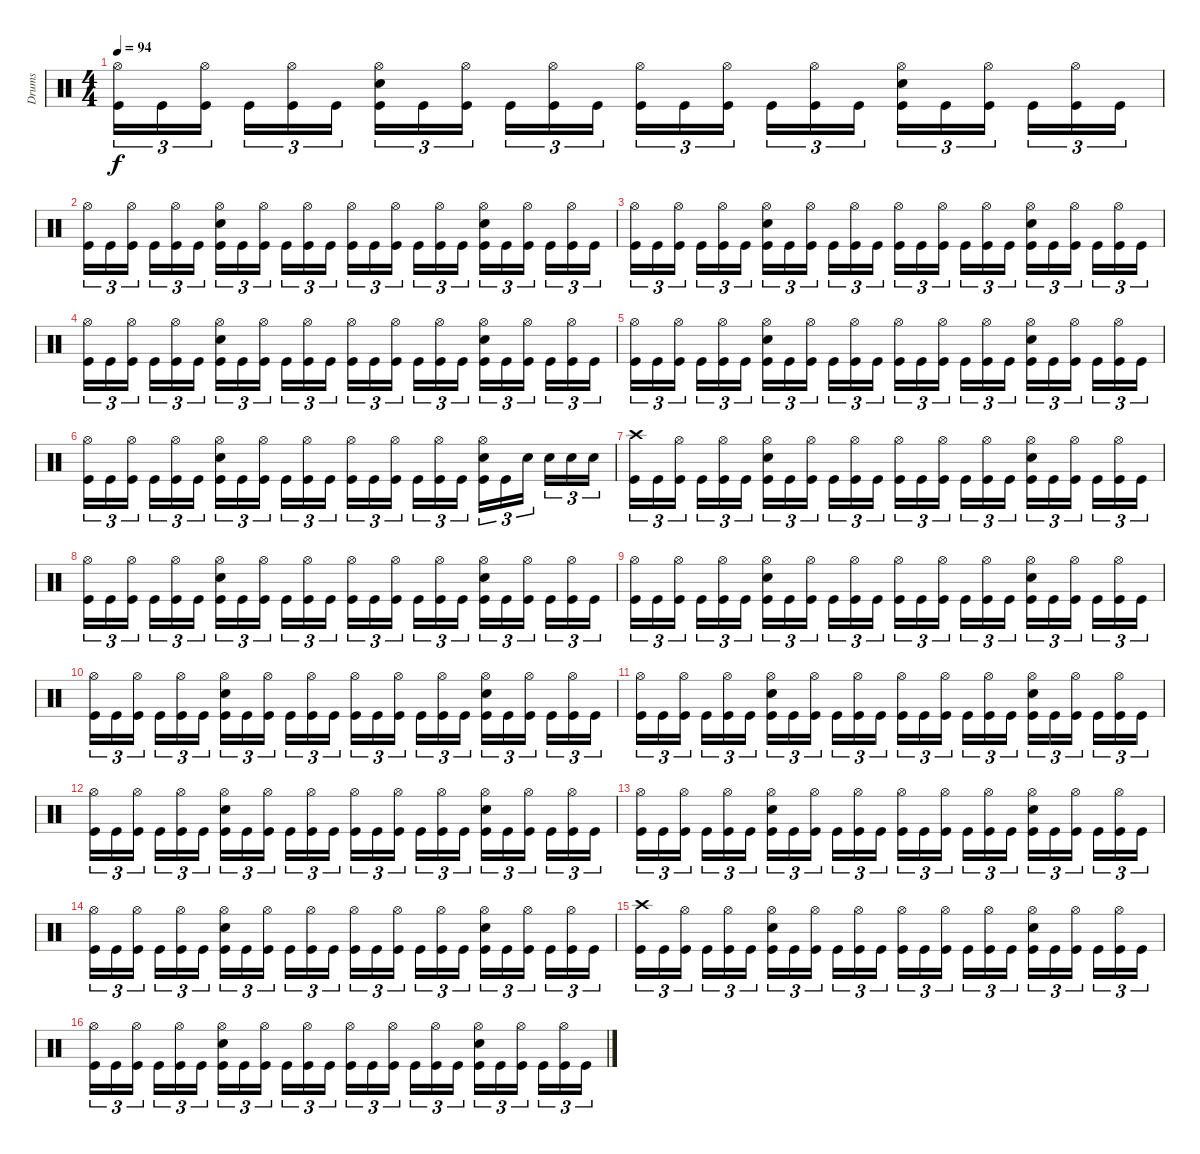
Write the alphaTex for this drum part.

\track ("Drums" "Drums") {instrument percussion}
\staff {score}
\articulation defaults
\ts (4 4)
\tempo 94
\clef neutral
\ks c
("Hi-Hat (open)" "Kick (hit)").16{tu (3 2) dy f} "Kick (hit)".16{tu (3 2)} ("Hi-Hat (open)" "Kick (hit)").16{tu (3 2)} "Kick (hit)".16{tu (3 2)} ("Hi-Hat (open)" "Kick (hit)").16{tu (3 2)} "Kick (hit)".16{tu (3 2)} ("Hi-Hat (open)" "Snare (hit) 2" "Kick (hit)").16{tu (3 2)} "Kick (hit)".16{tu (3 2)} ("Hi-Hat (open)" "Kick (hit)").16{tu (3 2)} "Kick (hit)".16{tu (3 2)} ("Hi-Hat (open)" "Kick (hit)").16{tu (3 2)} "Kick (hit)".16{tu (3 2)} ("Hi-Hat (open)" "Kick (hit)").16{tu (3 2)} "Kick (hit)".16{tu (3 2)} ("Hi-Hat (open)" "Kick (hit)").16{tu (3 2)} "Kick (hit)".16{tu (3 2)} ("Hi-Hat (open)" "Kick (hit)").16{tu (3 2)} "Kick (hit)".16{tu (3 2)} ("Hi-Hat (open)" "Snare (hit) 2" "Kick (hit)").16{tu (3 2)} "Kick (hit)".16{tu (3 2)} ("Hi-Hat (open)" "Kick (hit)").16{tu (3 2)} "Kick (hit)".16{tu (3 2)} ("Hi-Hat (open)" "Kick (hit)").16{tu (3 2)} "Kick (hit)".16{tu (3 2)} |
("Hi-Hat (open)" "Kick (hit)").16{tu (3 2)} "Kick (hit)".16{tu (3 2)} ("Hi-Hat (open)" "Kick (hit)").16{tu (3 2)} "Kick (hit)".16{tu (3 2)} ("Hi-Hat (open)" "Kick (hit)").16{tu (3 2)} "Kick (hit)".16{tu (3 2)} ("Hi-Hat (open)" "Snare (hit) 2" "Kick (hit)").16{tu (3 2)} "Kick (hit)".16{tu (3 2)} ("Hi-Hat (open)" "Kick (hit)").16{tu (3 2)} "Kick (hit)".16{tu (3 2)} ("Hi-Hat (open)" "Kick (hit)").16{tu (3 2)} "Kick (hit)".16{tu (3 2)} ("Hi-Hat (open)" "Kick (hit)").16{tu (3 2)} "Kick (hit)".16{tu (3 2)} ("Hi-Hat (open)" "Kick (hit)").16{tu (3 2)} "Kick (hit)".16{tu (3 2)} ("Hi-Hat (open)" "Kick (hit)").16{tu (3 2)} "Kick (hit)".16{tu (3 2)} ("Hi-Hat (open)" "Snare (hit) 2" "Kick (hit)").16{tu (3 2)} "Kick (hit)".16{tu (3 2)} ("Hi-Hat (open)" "Kick (hit)").16{tu (3 2)} "Kick (hit)".16{tu (3 2)} ("Hi-Hat (open)" "Kick (hit)").16{tu (3 2)} "Kick (hit)".16{tu (3 2)} |
("Hi-Hat (open)" "Kick (hit)").16{tu (3 2)} "Kick (hit)".16{tu (3 2)} ("Hi-Hat (open)" "Kick (hit)").16{tu (3 2)} "Kick (hit)".16{tu (3 2)} ("Hi-Hat (open)" "Kick (hit)").16{tu (3 2)} "Kick (hit)".16{tu (3 2)} ("Hi-Hat (open)" "Snare (hit) 2" "Kick (hit)").16{tu (3 2)} "Kick (hit)".16{tu (3 2)} ("Hi-Hat (open)" "Kick (hit)").16{tu (3 2)} "Kick (hit)".16{tu (3 2)} ("Hi-Hat (open)" "Kick (hit)").16{tu (3 2)} "Kick (hit)".16{tu (3 2)} ("Hi-Hat (open)" "Kick (hit)").16{tu (3 2)} "Kick (hit)".16{tu (3 2)} ("Hi-Hat (open)" "Kick (hit)").16{tu (3 2)} "Kick (hit)".16{tu (3 2)} ("Hi-Hat (open)" "Kick (hit)").16{tu (3 2)} "Kick (hit)".16{tu (3 2)} ("Hi-Hat (open)" "Snare (hit) 2" "Kick (hit)").16{tu (3 2)} "Kick (hit)".16{tu (3 2)} ("Hi-Hat (open)" "Kick (hit)").16{tu (3 2)} "Kick (hit)".16{tu (3 2)} ("Hi-Hat (open)" "Kick (hit)").16{tu (3 2)} "Kick (hit)".16{tu (3 2)} |
("Hi-Hat (open)" "Kick (hit)").16{tu (3 2)} "Kick (hit)".16{tu (3 2)} ("Hi-Hat (open)" "Kick (hit)").16{tu (3 2)} "Kick (hit)".16{tu (3 2)} ("Hi-Hat (open)" "Kick (hit)").16{tu (3 2)} "Kick (hit)".16{tu (3 2)} ("Hi-Hat (open)" "Snare (hit) 2" "Kick (hit)").16{tu (3 2)} "Kick (hit)".16{tu (3 2)} ("Hi-Hat (open)" "Kick (hit)").16{tu (3 2)} "Kick (hit)".16{tu (3 2)} ("Hi-Hat (open)" "Kick (hit)").16{tu (3 2)} "Kick (hit)".16{tu (3 2)} ("Hi-Hat (open)" "Kick (hit)").16{tu (3 2)} "Kick (hit)".16{tu (3 2)} ("Hi-Hat (open)" "Kick (hit)").16{tu (3 2)} "Kick (hit)".16{tu (3 2)} ("Hi-Hat (open)" "Kick (hit)").16{tu (3 2)} "Kick (hit)".16{tu (3 2)} ("Hi-Hat (open)" "Snare (hit) 2" "Kick (hit)").16{tu (3 2)} "Kick (hit)".16{tu (3 2)} ("Hi-Hat (open)" "Kick (hit)").16{tu (3 2)} "Kick (hit)".16{tu (3 2)} ("Hi-Hat (open)" "Kick (hit)").16{tu (3 2)} "Kick (hit)".16{tu (3 2)} |
("Hi-Hat (open)" "Kick (hit)").16{tu (3 2)} "Kick (hit)".16{tu (3 2)} ("Hi-Hat (open)" "Kick (hit)").16{tu (3 2)} "Kick (hit)".16{tu (3 2)} ("Hi-Hat (open)" "Kick (hit)").16{tu (3 2)} "Kick (hit)".16{tu (3 2)} ("Hi-Hat (open)" "Snare (hit) 2" "Kick (hit)").16{tu (3 2)} "Kick (hit)".16{tu (3 2)} ("Hi-Hat (open)" "Kick (hit)").16{tu (3 2)} "Kick (hit)".16{tu (3 2)} ("Hi-Hat (open)" "Kick (hit)").16{tu (3 2)} "Kick (hit)".16{tu (3 2)} ("Hi-Hat (open)" "Kick (hit)").16{tu (3 2)} "Kick (hit)".16{tu (3 2)} ("Hi-Hat (open)" "Kick (hit)").16{tu (3 2)} "Kick (hit)".16{tu (3 2)} ("Hi-Hat (open)" "Kick (hit)").16{tu (3 2)} "Kick (hit)".16{tu (3 2)} ("Hi-Hat (open)" "Snare (hit) 2" "Kick (hit)").16{tu (3 2)} "Kick (hit)".16{tu (3 2)} ("Hi-Hat (open)" "Kick (hit)").16{tu (3 2)} "Kick (hit)".16{tu (3 2)} ("Hi-Hat (open)" "Kick (hit)").16{tu (3 2)} "Kick (hit)".16{tu (3 2)} |
("Hi-Hat (open)" "Kick (hit)").16{tu (3 2)} "Kick (hit)".16{tu (3 2)} ("Hi-Hat (open)" "Kick (hit)").16{tu (3 2)} "Kick (hit)".16{tu (3 2)} ("Hi-Hat (open)" "Kick (hit)").16{tu (3 2)} "Kick (hit)".16{tu (3 2)} ("Hi-Hat (open)" "Snare (hit) 2" "Kick (hit)").16{tu (3 2)} "Kick (hit)".16{tu (3 2)} ("Hi-Hat (open)" "Kick (hit)").16{tu (3 2)} "Kick (hit)".16{tu (3 2)} ("Hi-Hat (open)" "Kick (hit)").16{tu (3 2)} "Kick (hit)".16{tu (3 2)} ("Hi-Hat (open)" "Kick (hit)").16{tu (3 2)} "Kick (hit)".16{tu (3 2)} ("Hi-Hat (open)" "Kick (hit)").16{tu (3 2)} "Kick (hit)".16{tu (3 2)} ("Hi-Hat (open)" "Kick (hit)").16{tu (3 2)} "Kick (hit)".16{tu (3 2)} ("Hi-Hat (open)" "Snare (hit) 2" "Kick (hit)").16{tu (3 2)} "Kick (hit)".16{tu (3 2)} "Snare (hit) 2".16{tu (3 2)} "Snare (hit) 2".16{tu (3 2)} "Snare (hit) 2".16{tu (3 2)} "Snare (hit) 2".16{tu (3 2)} |
("Crash high (hit)" "Kick (hit)").16{tu (3 2)} "Kick (hit)".16{tu (3 2)} ("Hi-Hat (open)" "Kick (hit)").16{tu (3 2)} "Kick (hit)".16{tu (3 2)} ("Hi-Hat (open)" "Kick (hit)").16{tu (3 2)} "Kick (hit)".16{tu (3 2)} ("Hi-Hat (open)" "Snare (hit) 2" "Kick (hit)").16{tu (3 2)} "Kick (hit)".16{tu (3 2)} ("Hi-Hat (open)" "Kick (hit)").16{tu (3 2)} "Kick (hit)".16{tu (3 2)} ("Hi-Hat (open)" "Kick (hit)").16{tu (3 2)} "Kick (hit)".16{tu (3 2)} ("Hi-Hat (open)" "Kick (hit)").16{tu (3 2)} "Kick (hit)".16{tu (3 2)} ("Hi-Hat (open)" "Kick (hit)").16{tu (3 2)} "Kick (hit)".16{tu (3 2)} ("Hi-Hat (open)" "Kick (hit)").16{tu (3 2)} "Kick (hit)".16{tu (3 2)} ("Hi-Hat (open)" "Snare (hit) 2" "Kick (hit)").16{tu (3 2)} "Kick (hit)".16{tu (3 2)} ("Hi-Hat (open)" "Kick (hit)").16{tu (3 2)} "Kick (hit)".16{tu (3 2)} ("Hi-Hat (open)" "Kick (hit)").16{tu (3 2)} "Kick (hit)".16{tu (3 2)} |
("Hi-Hat (open)" "Kick (hit)").16{tu (3 2)} "Kick (hit)".16{tu (3 2)} ("Hi-Hat (open)" "Kick (hit)").16{tu (3 2)} "Kick (hit)".16{tu (3 2)} ("Hi-Hat (open)" "Kick (hit)").16{tu (3 2)} "Kick (hit)".16{tu (3 2)} ("Hi-Hat (open)" "Snare (hit) 2" "Kick (hit)").16{tu (3 2)} "Kick (hit)".16{tu (3 2)} ("Hi-Hat (open)" "Kick (hit)").16{tu (3 2)} "Kick (hit)".16{tu (3 2)} ("Hi-Hat (open)" "Kick (hit)").16{tu (3 2)} "Kick (hit)".16{tu (3 2)} ("Hi-Hat (open)" "Kick (hit)").16{tu (3 2)} "Kick (hit)".16{tu (3 2)} ("Hi-Hat (open)" "Kick (hit)").16{tu (3 2)} "Kick (hit)".16{tu (3 2)} ("Hi-Hat (open)" "Kick (hit)").16{tu (3 2)} "Kick (hit)".16{tu (3 2)} ("Hi-Hat (open)" "Snare (hit) 2" "Kick (hit)").16{tu (3 2)} "Kick (hit)".16{tu (3 2)} ("Hi-Hat (open)" "Kick (hit)").16{tu (3 2)} "Kick (hit)".16{tu (3 2)} ("Hi-Hat (open)" "Kick (hit)").16{tu (3 2)} "Kick (hit)".16{tu (3 2)} |
("Hi-Hat (open)" "Kick (hit)").16{tu (3 2)} "Kick (hit)".16{tu (3 2)} ("Hi-Hat (open)" "Kick (hit)").16{tu (3 2)} "Kick (hit)".16{tu (3 2)} ("Hi-Hat (open)" "Kick (hit)").16{tu (3 2)} "Kick (hit)".16{tu (3 2)} ("Hi-Hat (open)" "Snare (hit) 2" "Kick (hit)").16{tu (3 2)} "Kick (hit)".16{tu (3 2)} ("Hi-Hat (open)" "Kick (hit)").16{tu (3 2)} "Kick (hit)".16{tu (3 2)} ("Hi-Hat (open)" "Kick (hit)").16{tu (3 2)} "Kick (hit)".16{tu (3 2)} ("Hi-Hat (open)" "Kick (hit)").16{tu (3 2)} "Kick (hit)".16{tu (3 2)} ("Hi-Hat (open)" "Kick (hit)").16{tu (3 2)} "Kick (hit)".16{tu (3 2)} ("Hi-Hat (open)" "Kick (hit)").16{tu (3 2)} "Kick (hit)".16{tu (3 2)} ("Hi-Hat (open)" "Snare (hit) 2" "Kick (hit)").16{tu (3 2)} "Kick (hit)".16{tu (3 2)} ("Hi-Hat (open)" "Kick (hit)").16{tu (3 2)} "Kick (hit)".16{tu (3 2)} ("Hi-Hat (open)" "Kick (hit)").16{tu (3 2)} "Kick (hit)".16{tu (3 2)} |
("Hi-Hat (open)" "Kick (hit)").16{tu (3 2)} "Kick (hit)".16{tu (3 2)} ("Hi-Hat (open)" "Kick (hit)").16{tu (3 2)} "Kick (hit)".16{tu (3 2)} ("Hi-Hat (open)" "Kick (hit)").16{tu (3 2)} "Kick (hit)".16{tu (3 2)} ("Hi-Hat (open)" "Snare (hit) 2" "Kick (hit)").16{tu (3 2)} "Kick (hit)".16{tu (3 2)} ("Hi-Hat (open)" "Kick (hit)").16{tu (3 2)} "Kick (hit)".16{tu (3 2)} ("Hi-Hat (open)" "Kick (hit)").16{tu (3 2)} "Kick (hit)".16{tu (3 2)} ("Hi-Hat (open)" "Kick (hit)").16{tu (3 2)} "Kick (hit)".16{tu (3 2)} ("Hi-Hat (open)" "Kick (hit)").16{tu (3 2)} "Kick (hit)".16{tu (3 2)} ("Hi-Hat (open)" "Kick (hit)").16{tu (3 2)} "Kick (hit)".16{tu (3 2)} ("Hi-Hat (open)" "Snare (hit) 2" "Kick (hit)").16{tu (3 2)} "Kick (hit)".16{tu (3 2)} ("Hi-Hat (open)" "Kick (hit)").16{tu (3 2)} "Kick (hit)".16{tu (3 2)} ("Hi-Hat (open)" "Kick (hit)").16{tu (3 2)} "Kick (hit)".16{tu (3 2)} |
("Hi-Hat (open)" "Kick (hit)").16{tu (3 2)} "Kick (hit)".16{tu (3 2)} ("Hi-Hat (open)" "Kick (hit)").16{tu (3 2)} "Kick (hit)".16{tu (3 2)} ("Hi-Hat (open)" "Kick (hit)").16{tu (3 2)} "Kick (hit)".16{tu (3 2)} ("Hi-Hat (open)" "Snare (hit) 2" "Kick (hit)").16{tu (3 2)} "Kick (hit)".16{tu (3 2)} ("Hi-Hat (open)" "Kick (hit)").16{tu (3 2)} "Kick (hit)".16{tu (3 2)} ("Hi-Hat (open)" "Kick (hit)").16{tu (3 2)} "Kick (hit)".16{tu (3 2)} ("Hi-Hat (open)" "Kick (hit)").16{tu (3 2)} "Kick (hit)".16{tu (3 2)} ("Hi-Hat (open)" "Kick (hit)").16{tu (3 2)} "Kick (hit)".16{tu (3 2)} ("Hi-Hat (open)" "Kick (hit)").16{tu (3 2)} "Kick (hit)".16{tu (3 2)} ("Hi-Hat (open)" "Snare (hit) 2" "Kick (hit)").16{tu (3 2)} "Kick (hit)".16{tu (3 2)} ("Hi-Hat (open)" "Kick (hit)").16{tu (3 2)} "Kick (hit)".16{tu (3 2)} ("Hi-Hat (open)" "Kick (hit)").16{tu (3 2)} "Kick (hit)".16{tu (3 2)} |
("Hi-Hat (open)" "Kick (hit)").16{tu (3 2)} "Kick (hit)".16{tu (3 2)} ("Hi-Hat (open)" "Kick (hit)").16{tu (3 2)} "Kick (hit)".16{tu (3 2)} ("Hi-Hat (open)" "Kick (hit)").16{tu (3 2)} "Kick (hit)".16{tu (3 2)} ("Hi-Hat (open)" "Snare (hit) 2" "Kick (hit)").16{tu (3 2)} "Kick (hit)".16{tu (3 2)} ("Hi-Hat (open)" "Kick (hit)").16{tu (3 2)} "Kick (hit)".16{tu (3 2)} ("Hi-Hat (open)" "Kick (hit)").16{tu (3 2)} "Kick (hit)".16{tu (3 2)} ("Hi-Hat (open)" "Kick (hit)").16{tu (3 2)} "Kick (hit)".16{tu (3 2)} ("Hi-Hat (open)" "Kick (hit)").16{tu (3 2)} "Kick (hit)".16{tu (3 2)} ("Hi-Hat (open)" "Kick (hit)").16{tu (3 2)} "Kick (hit)".16{tu (3 2)} ("Hi-Hat (open)" "Snare (hit) 2" "Kick (hit)").16{tu (3 2)} "Kick (hit)".16{tu (3 2)} ("Hi-Hat (open)" "Kick (hit)").16{tu (3 2)} "Kick (hit)".16{tu (3 2)} ("Hi-Hat (open)" "Kick (hit)").16{tu (3 2)} "Kick (hit)".16{tu (3 2)} |
("Hi-Hat (open)" "Kick (hit)").16{tu (3 2)} "Kick (hit)".16{tu (3 2)} ("Hi-Hat (open)" "Kick (hit)").16{tu (3 2)} "Kick (hit)".16{tu (3 2)} ("Hi-Hat (open)" "Kick (hit)").16{tu (3 2)} "Kick (hit)".16{tu (3 2)} ("Hi-Hat (open)" "Snare (hit) 2" "Kick (hit)").16{tu (3 2)} "Kick (hit)".16{tu (3 2)} ("Hi-Hat (open)" "Kick (hit)").16{tu (3 2)} "Kick (hit)".16{tu (3 2)} ("Hi-Hat (open)" "Kick (hit)").16{tu (3 2)} "Kick (hit)".16{tu (3 2)} ("Hi-Hat (open)" "Kick (hit)").16{tu (3 2)} "Kick (hit)".16{tu (3 2)} ("Hi-Hat (open)" "Kick (hit)").16{tu (3 2)} "Kick (hit)".16{tu (3 2)} ("Hi-Hat (open)" "Kick (hit)").16{tu (3 2)} "Kick (hit)".16{tu (3 2)} ("Hi-Hat (open)" "Snare (hit) 2" "Kick (hit)").16{tu (3 2)} "Kick (hit)".16{tu (3 2)} ("Hi-Hat (open)" "Kick (hit)").16{tu (3 2)} "Kick (hit)".16{tu (3 2)} ("Hi-Hat (open)" "Kick (hit)").16{tu (3 2)} "Kick (hit)".16{tu (3 2)} |
("Hi-Hat (open)" "Kick (hit)").16{tu (3 2)} "Kick (hit)".16{tu (3 2)} ("Hi-Hat (open)" "Kick (hit)").16{tu (3 2)} "Kick (hit)".16{tu (3 2)} ("Hi-Hat (open)" "Kick (hit)").16{tu (3 2)} "Kick (hit)".16{tu (3 2)} ("Hi-Hat (open)" "Snare (hit) 2" "Kick (hit)").16{tu (3 2)} "Kick (hit)".16{tu (3 2)} ("Hi-Hat (open)" "Kick (hit)").16{tu (3 2)} "Kick (hit)".16{tu (3 2)} ("Hi-Hat (open)" "Kick (hit)").16{tu (3 2)} "Kick (hit)".16{tu (3 2)} ("Hi-Hat (open)" "Kick (hit)").16{tu (3 2)} "Kick (hit)".16{tu (3 2)} ("Hi-Hat (open)" "Kick (hit)").16{tu (3 2)} "Kick (hit)".16{tu (3 2)} ("Hi-Hat (open)" "Kick (hit)").16{tu (3 2)} "Kick (hit)".16{tu (3 2)} ("Hi-Hat (open)" "Snare (hit) 2" "Kick (hit)").16{tu (3 2)} "Kick (hit)".16{tu (3 2)} ("Hi-Hat (open)" "Kick (hit)").16{tu (3 2)} "Kick (hit)".16{tu (3 2)} ("Hi-Hat (open)" "Kick (hit)").16{tu (3 2)} "Kick (hit)".16{tu (3 2)} |
("Crash high (hit)" "Kick (hit)").16{tu (3 2)} "Kick (hit)".16{tu (3 2)} ("Hi-Hat (open)" "Kick (hit)").16{tu (3 2)} "Kick (hit)".16{tu (3 2)} ("Hi-Hat (open)" "Kick (hit)").16{tu (3 2)} "Kick (hit)".16{tu (3 2)} ("Hi-Hat (open)" "Snare (hit) 2" "Kick (hit)").16{tu (3 2)} "Kick (hit)".16{tu (3 2)} ("Hi-Hat (open)" "Kick (hit)").16{tu (3 2)} "Kick (hit)".16{tu (3 2)} ("Hi-Hat (open)" "Kick (hit)").16{tu (3 2)} "Kick (hit)".16{tu (3 2)} ("Hi-Hat (open)" "Kick (hit)").16{tu (3 2)} "Kick (hit)".16{tu (3 2)} ("Hi-Hat (open)" "Kick (hit)").16{tu (3 2)} "Kick (hit)".16{tu (3 2)} ("Hi-Hat (open)" "Kick (hit)").16{tu (3 2)} "Kick (hit)".16{tu (3 2)} ("Hi-Hat (open)" "Snare (hit) 2" "Kick (hit)").16{tu (3 2)} "Kick (hit)".16{tu (3 2)} ("Hi-Hat (open)" "Kick (hit)").16{tu (3 2)} "Kick (hit)".16{tu (3 2)} ("Hi-Hat (open)" "Kick (hit)").16{tu (3 2)} "Kick (hit)".16{tu (3 2)} |
("Hi-Hat (open)" "Kick (hit)").16{tu (3 2)} "Kick (hit)".16{tu (3 2)} ("Hi-Hat (open)" "Kick (hit)").16{tu (3 2)} "Kick (hit)".16{tu (3 2)} ("Hi-Hat (open)" "Kick (hit)").16{tu (3 2)} "Kick (hit)".16{tu (3 2)} ("Hi-Hat (open)" "Snare (hit) 2" "Kick (hit)").16{tu (3 2)} "Kick (hit)".16{tu (3 2)} ("Hi-Hat (open)" "Kick (hit)").16{tu (3 2)} "Kick (hit)".16{tu (3 2)} ("Hi-Hat (open)" "Kick (hit)").16{tu (3 2)} "Kick (hit)".16{tu (3 2)} ("Hi-Hat (open)" "Kick (hit)").16{tu (3 2)} "Kick (hit)".16{tu (3 2)} ("Hi-Hat (open)" "Kick (hit)").16{tu (3 2)} "Kick (hit)".16{tu (3 2)} ("Hi-Hat (open)" "Kick (hit)").16{tu (3 2)} "Kick (hit)".16{tu (3 2)} ("Hi-Hat (open)" "Snare (hit) 2" "Kick (hit)").16{tu (3 2)} "Kick (hit)".16{tu (3 2)} ("Hi-Hat (open)" "Kick (hit)").16{tu (3 2)} "Kick (hit)".16{tu (3 2)} ("Hi-Hat (open)" "Kick (hit)").16{tu (3 2)} "Kick (hit)".16{tu (3 2)}
